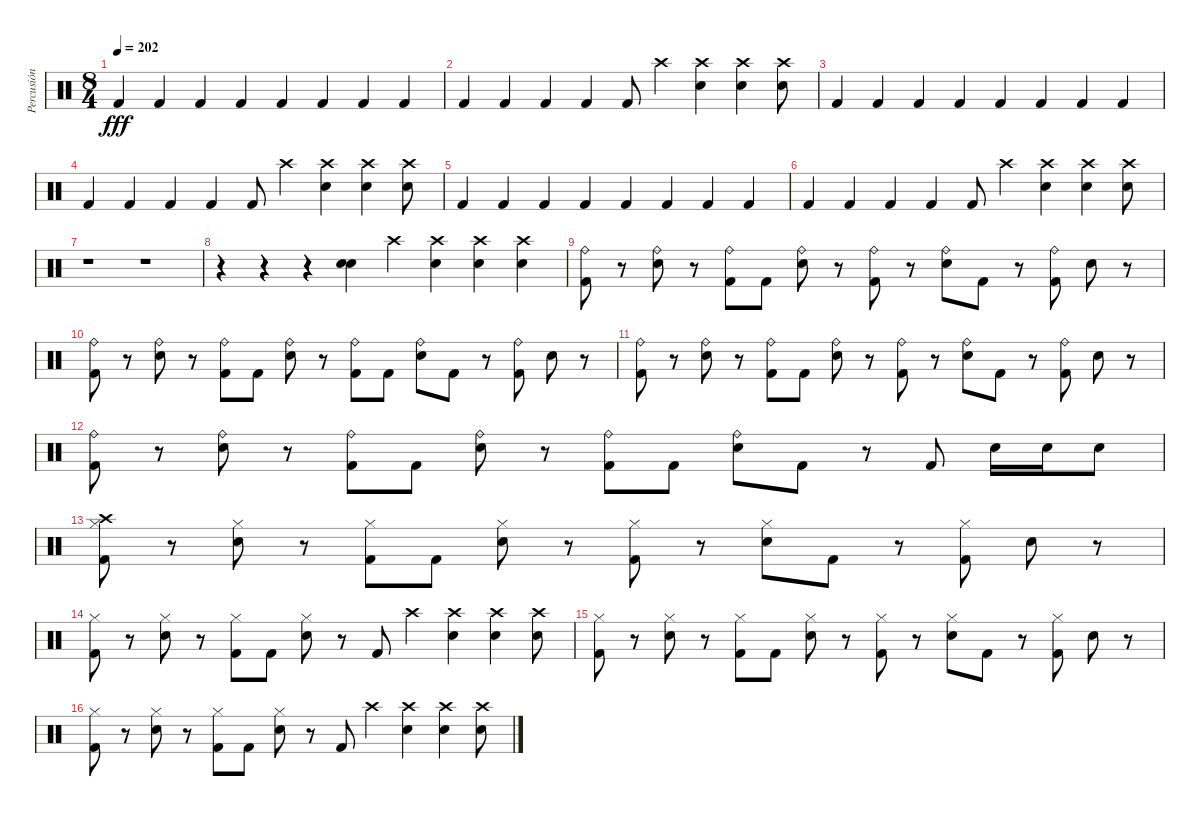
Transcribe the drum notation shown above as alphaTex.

\track ("Percusión (Santi Doré)" "Percusión ") {instrument percussion}
\staff {score}
\articulation defaults
\ts (8 4)
\tempo 202
\clef neutral
\ks c "Kick (hit) 2".4{dy fff} "Kick (hit) 2".4 "Kick (hit) 2".4 "Kick (hit) 2".4 "Kick (hit) 2".4 "Kick (hit) 2".4 "Kick (hit) 2".4 "Kick (hit) 2".4
|
"Kick (hit) 2".4 "Kick (hit) 2".4 "Kick (hit) 2".4 "Kick (hit) 2".4 "Kick (hit) 2".8 "Crash high (hit)".4 ("Crash high (hit)" "Electric Snare (hit)").4 ("Crash high (hit)" "Electric Snare (hit)").4 ("Crash high (hit)" "Electric Snare (hit)").8 |
"Kick (hit) 2".4 "Kick (hit) 2".4 "Kick (hit) 2".4 "Kick (hit) 2".4 "Kick (hit) 2".4 "Kick (hit) 2".4 "Kick (hit) 2".4 "Kick (hit) 2".4 |
"Kick (hit) 2".4 "Kick (hit) 2".4 "Kick (hit) 2".4 "Kick (hit) 2".4 "Kick (hit) 2".8 "Crash high (hit)".4 ("Crash high (hit)" "Electric Snare (hit)").4 ("Crash high (hit)" "Electric Snare (hit)").4 ("Crash high (hit)" "Electric Snare (hit)").8 |
"Kick (hit) 2".4 "Kick (hit) 2".4 "Kick (hit) 2".4 "Kick (hit) 2".4 "Kick (hit) 2".4 "Kick (hit) 2".4 "Kick (hit) 2".4 "Kick (hit) 2".4 |
"Kick (hit) 2".4 "Kick (hit) 2".4 "Kick (hit) 2".4 "Kick (hit) 2".4 "Kick (hit) 2".8 "Crash high (hit)".4 ("Crash high (hit)" "Electric Snare (hit)").4 ("Crash high (hit)" "Electric Snare (hit)").4 ("Crash high (hit)" "Electric Snare (hit)").8 |
r.1 r.1 |
r.4 r.4 r.4 ("Electric Snare (hit)" "Snare (hit) 2").4 "Crash high (hit)".4 ("Crash high (hit)" "Electric Snare (hit)").4 ("Crash high (hit)" "Electric Snare (hit)").4 ("Crash high (hit)" "Electric Snare (hit)").4 |
("Ride (bell)" "Kick (hit) 2").8 r.8 ("Ride (bell)" "Electric Snare (hit)").8 r.8 ("Ride (bell)" "Kick (hit) 2").8 "Kick (hit) 2".8 ("Ride (bell)" "Electric Snare (hit)").8 r.8 ("Ride (bell)" "Kick (hit) 2").8 r.8 ("Ride (bell)" "Electric Snare (hit)").8 "Kick (hit) 2".8 r.8 ("Ride (bell)" "Kick (hit) 2").8 "Electric Snare (hit)".8 r.8 |
("Ride (bell)" "Kick (hit) 2").8 r.8 ("Ride (bell)" "Electric Snare (hit)").8 r.8 ("Ride (bell)" "Kick (hit) 2").8 "Kick (hit) 2".8 ("Ride (bell)" "Electric Snare (hit)").8 r.8 ("Ride (bell)" "Kick (hit) 2").8 "Kick (hit) 2".8 ("Ride (bell)" "Electric Snare (hit)").8 "Kick (hit) 2".8 r.8 ("Ride (bell)" "Kick (hit) 2").8 "Electric Snare (hit)".8 r.8 |
("Ride (bell)" "Kick (hit) 2").8 r.8 ("Ride (bell)" "Electric Snare (hit)").8 r.8 ("Ride (bell)" "Kick (hit) 2").8 "Kick (hit) 2".8 ("Ride (bell)" "Electric Snare (hit)").8 r.8 ("Ride (bell)" "Kick (hit) 2").8 r.8 ("Ride (bell)" "Electric Snare (hit)").8 "Kick (hit) 2".8 r.8 ("Ride (bell)" "Kick (hit) 2").8 "Electric Snare (hit)".8 r.8 |
("Ride (bell)" "Kick (hit) 2").8 r.8 ("Ride (bell)" "Electric Snare (hit)").8 r.8 ("Ride (bell)" "Kick (hit) 2").8 "Kick (hit) 2".8 ("Ride (bell)" "Electric Snare (hit)").8 r.8 ("Ride (bell)" "Kick (hit) 2").8 "Kick (hit) 2".8 ("Ride (bell)" "Electric Snare (hit)").8 "Kick (hit) 2".8 r.8 "Kick (hit) 2".8 "Electric Snare (hit)".16 "Electric Snare (hit)".16 "Electric Snare (hit)".8 |
("Crash high (hit)" "Hi-Hat (closed)" "Kick (hit) 2").8 r.8 ("Hi-Hat (closed)" "Electric Snare (hit)").8 r.8 ("Hi-Hat (closed)" "Kick (hit) 2").8 "Kick (hit) 2".8 ("Hi-Hat (closed)" "Electric Snare (hit)").8 r.8 ("Hi-Hat (closed)" "Kick (hit) 2").8 r.8 ("Hi-Hat (closed)" "Electric Snare (hit)").8 "Kick (hit) 2".8 r.8 ("Hi-Hat (closed)" "Kick (hit) 2").8 "Electric Snare (hit)".8 r.8 |
("Hi-Hat (closed)" "Kick (hit) 2").8 r.8 ("Hi-Hat (closed)" "Electric Snare (hit)").8 r.8 ("Hi-Hat (closed)" "Kick (hit) 2").8 "Kick (hit) 2".8 ("Hi-Hat (closed)" "Electric Snare (hit)").8 r.8 "Kick (hit) 2".8 "Crash high (hit)".4 ("Crash high (hit)" "Electric Snare (hit)").4 ("Crash high (hit)" "Electric Snare (hit)").4 ("Crash high (hit)" "Electric Snare (hit)").8 |
("Hi-Hat (closed)" "Kick (hit) 2").8 r.8 ("Hi-Hat (closed)" "Electric Snare (hit)").8 r.8 ("Hi-Hat (closed)" "Kick (hit) 2").8 "Kick (hit) 2".8 ("Hi-Hat (closed)" "Electric Snare (hit)").8 r.8 ("Hi-Hat (closed)" "Kick (hit) 2").8 r.8 ("Hi-Hat (closed)" "Electric Snare (hit)").8 "Kick (hit) 2".8 r.8 ("Hi-Hat (closed)" "Kick (hit) 2").8 "Electric Snare (hit)".8 r.8 |
("Hi-Hat (closed)" "Kick (hit) 2").8 r.8 ("Hi-Hat (closed)" "Electric Snare (hit)").8 r.8 ("Hi-Hat (closed)" "Kick (hit) 2").8 "Kick (hit) 2".8 ("Hi-Hat (closed)" "Electric Snare (hit)").8 r.8 "Kick (hit) 2".8 "Crash high (hit)".4 ("Crash high (hit)" "Electric Snare (hit)").4 ("Crash high (hit)" "Electric Snare (hit)").4 ("Crash high (hit)" "Electric Snare (hit)").8
